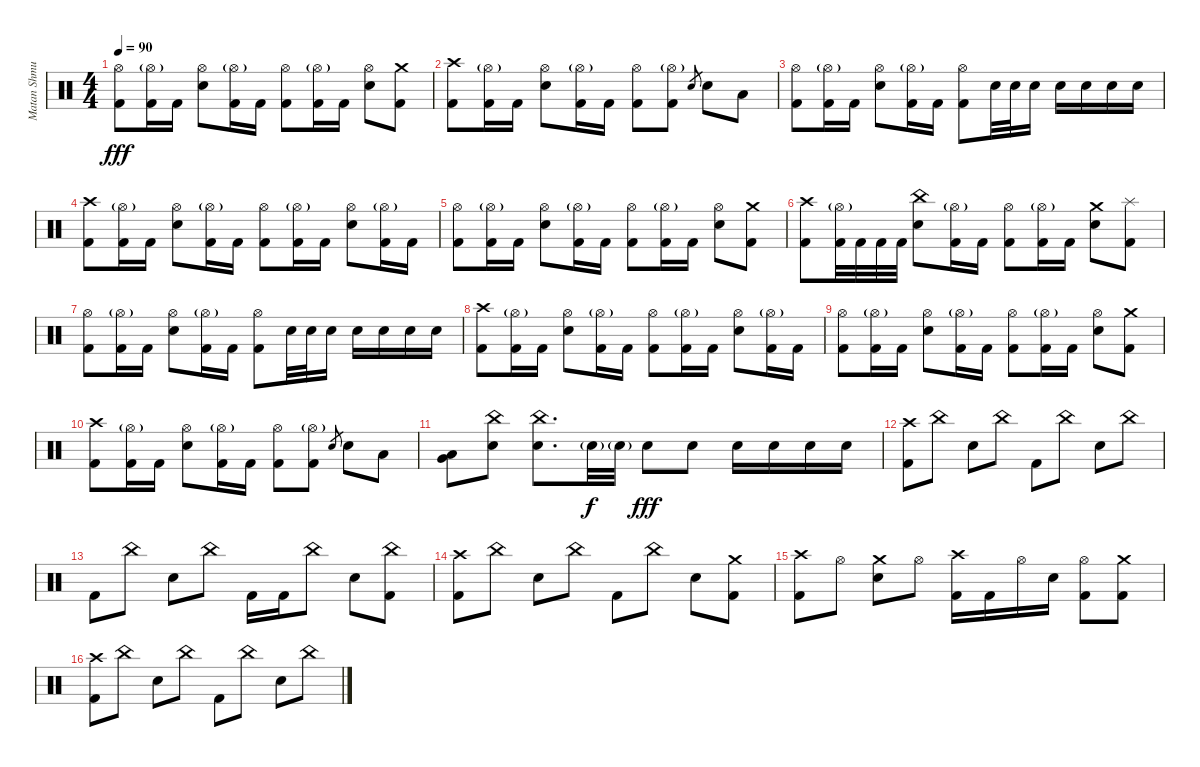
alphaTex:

\track ("Matan Shmuely " "Matan Shmu") {instrument percussion}
\staff {score}
\articulation defaults
\ts (4 4)
\tempo 90
\clef neutral
\ks c
("Kick (hit) 2" "Hi-Hat (open)").8{dy fff} ("Kick (hit) 2" "Hi-Hat (open)"{g}).16 "Kick (hit) 2".16 ("Electric Snare (hit)" "Hi-Hat (open)").8 ("Kick (hit) 2" "Hi-Hat (open)"{g}).16 "Kick (hit) 2".16 ("Kick (hit) 2" "Hi-Hat (open)").8 ("Kick (hit) 2" "Hi-Hat (open)"{g}).16 "Kick (hit) 2".16 ("Electric Snare (hit)" "Hi-Hat (open)").8 ("Kick (hit) 2" "Crash medium (hit)").8 |
("Kick (hit) 2" "Crash high (hit)").8 ("Kick (hit) 2" "Hi-Hat (open)"{g}).16 "Kick (hit) 2".16 ("Electric Snare (hit)" "Hi-Hat (open)").8 ("Kick (hit) 2" "Hi-Hat (open)"{g}).16 "Kick (hit) 2".16 ("Kick (hit) 2" "Hi-Hat (open)").8 ("Kick (hit) 2" "Hi-Hat (open)"{g}).8 "Electric Snare (hit)".8{gr} "Electric Snare (hit)".8 "Low Tom (hit)".8 |
("Kick (hit) 2" "Hi-Hat (open)").8 ("Kick (hit) 2" "Hi-Hat (open)"{g}).16 "Kick (hit) 2".16 ("Electric Snare (hit)" "Hi-Hat (open)").8 ("Kick (hit) 2" "Hi-Hat (open)"{g}).16 "Kick (hit) 2".16 ("Kick (hit) 2" "Hi-Hat (open)").8 "Electric Snare (hit)".32 "Electric Snare (hit)".32 "Electric Snare (hit)".16 "Electric Snare (hit)".16 "Electric Snare (hit)".16 "Electric Snare (hit)".16 "Electric Snare (hit)".16 |
("Kick (hit) 2" "Crash high (hit)").8 ("Kick (hit) 2" "Hi-Hat (open)"{g}).16 "Kick (hit) 2".16 ("Electric Snare (hit)" "Hi-Hat (open)").8 ("Kick (hit) 2" "Hi-Hat (open)"{g}).16 "Kick (hit) 2".16 ("Kick (hit) 2" "Hi-Hat (open)").8 ("Kick (hit) 2" "Hi-Hat (open)"{g}).16 "Kick (hit) 2".16 ("Electric Snare (hit)" "Hi-Hat (open)").8 ("Kick (hit) 2" "Hi-Hat (open)"{g}).16 "Kick (hit) 2".16 |
("Kick (hit) 2" "Hi-Hat (open)").8 ("Kick (hit) 2" "Hi-Hat (open)"{g}).16 "Kick (hit) 2".16 ("Electric Snare (hit)" "Hi-Hat (open)").8 ("Kick (hit) 2" "Hi-Hat (open)"{g}).16 "Kick (hit) 2".16 ("Kick (hit) 2" "Hi-Hat (open)").8 ("Kick (hit) 2" "Hi-Hat (open)"{g}).16 "Kick (hit) 2".16 ("Electric Snare (hit)" "Hi-Hat (open)").8 ("Kick (hit) 2" "Crash medium (hit)").8 |
("Kick (hit) 2" "Crash high (hit)").8 ("Kick (hit) 2" "Hi-Hat (open)"{g}).32 "Kick (hit) 2".32 "Kick (hit) 2".32 "Kick (hit) 2".32 ("Electric Snare (hit)" "China (hit)").8 ("Kick (hit) 2" "Hi-Hat (open)"{g}).16 "Kick (hit) 2".16 ("Kick (hit) 2" "Hi-Hat (open)").8 ("Kick (hit) 2" "Hi-Hat (open)"{g}).16 "Kick (hit) 2".16 ("Electric Snare (hit)" "Crash medium (hit)").8 ("Kick (hit) 2" "Splash (hit)").8 |
("Kick (hit) 2" "Hi-Hat (open)").8 ("Kick (hit) 2" "Hi-Hat (open)"{g}).16 "Kick (hit) 2".16 ("Electric Snare (hit)" "Hi-Hat (open)").8 ("Kick (hit) 2" "Hi-Hat (open)"{g}).16 "Kick (hit) 2".16 ("Kick (hit) 2" "Hi-Hat (open)").8 "Electric Snare (hit)".32 "Electric Snare (hit)".32 "Electric Snare (hit)".16 "Electric Snare (hit)".16 "Electric Snare (hit)".16 "Electric Snare (hit)".16 "Electric Snare (hit)".16 |
("Kick (hit) 2" "Crash high (hit)").8 ("Kick (hit) 2" "Hi-Hat (open)"{g}).16 "Kick (hit) 2".16 ("Electric Snare (hit)" "Hi-Hat (open)").8 ("Kick (hit) 2" "Hi-Hat (open)"{g}).16 "Kick (hit) 2".16 ("Kick (hit) 2" "Hi-Hat (open)").8 ("Kick (hit) 2" "Hi-Hat (open)"{g}).16 "Kick (hit) 2".16 ("Electric Snare (hit)" "Hi-Hat (open)").8 ("Kick (hit) 2" "Hi-Hat (open)"{g}).16 "Kick (hit) 2".16 |
("Kick (hit) 2" "Hi-Hat (open)").8 ("Kick (hit) 2" "Hi-Hat (open)"{g}).16 "Kick (hit) 2".16 ("Electric Snare (hit)" "Hi-Hat (open)").8 ("Kick (hit) 2" "Hi-Hat (open)"{g}).16 "Kick (hit) 2".16 ("Kick (hit) 2" "Hi-Hat (open)").8 ("Kick (hit) 2" "Hi-Hat (open)"{g}).16 "Kick (hit) 2".16 ("Electric Snare (hit)" "Hi-Hat (open)").8 ("Kick (hit) 2" "Crash medium (hit)").8 |
("Kick (hit) 2" "Crash high (hit)").8 ("Kick (hit) 2" "Hi-Hat (open)"{g}).16 "Kick (hit) 2".16 ("Electric Snare (hit)" "Hi-Hat (open)").8 ("Kick (hit) 2" "Hi-Hat (open)"{g}).16 "Kick (hit) 2".16 ("Kick (hit) 2" "Hi-Hat (open)").8 ("Kick (hit) 2" "Hi-Hat (open)"{g}).8 "Electric Snare (hit)".8{gr} "Electric Snare (hit)".8 "Low Tom (hit)".8 |
("Low Tom (hit)" "Very Low Tom (hit)").8 ("Electric Snare (hit)" "China (hit)").8 ("Electric Snare (hit)" "China (hit)").8{d} "Electric Snare (hit)"{g}.32{dy f} "Electric Snare (hit)"{g}.32 "Electric Snare (hit)".8{dy fff} "Electric Snare (hit)".8 "Electric Snare (hit)".16 "Electric Snare (hit)".16 "Electric Snare (hit)".16 "Electric Snare (hit)".16 |
("Kick (hit) 2" "Crash high (hit)").8 "China (hit)".8 "Electric Snare (hit)".8 "China (hit)".8 "Kick (hit) 2".8 "China (hit)".8 "Electric Snare (hit)".8 "China (hit)".8 |
"Kick (hit) 2".8 "China (hit)".8 "Electric Snare (hit)".8 "China (hit)".8 "Kick (hit) 2".16 "Kick (hit) 2".16 "China (hit)".8 "Electric Snare (hit)".8 ("Kick (hit) 2" "China (hit)").8 |
("Kick (hit) 2" "Crash high (hit)").8 "China (hit)".8 "Electric Snare (hit)".8 "China (hit)".8 "Kick (hit) 2".8 "China (hit)".8 "Electric Snare (hit)".8 ("Kick (hit) 2" "Crash medium (hit)").8 |
("Kick (hit) 2" "Crash high (hit)").8 "Hi-Hat (open)".8 ("Electric Snare (hit)" "Crash medium (hit)").8 "Hi-Hat (open)".8 ("Kick (hit) 2" "Crash high (hit)").16 "Kick (hit) 2".16 "Hi-Hat (open)".16 "Electric Snare (hit)".16 ("Kick (hit) 2" "Hi-Hat (open)").8 ("Kick (hit) 2" "Crash medium (hit)").8 |
("Kick (hit) 2" "Crash high (hit)").8 "China (hit)".8 "Electric Snare (hit)".8 "China (hit)".8 "Kick (hit) 2".8 "China (hit)".8 "Electric Snare (hit)".8 "China (hit)".8
